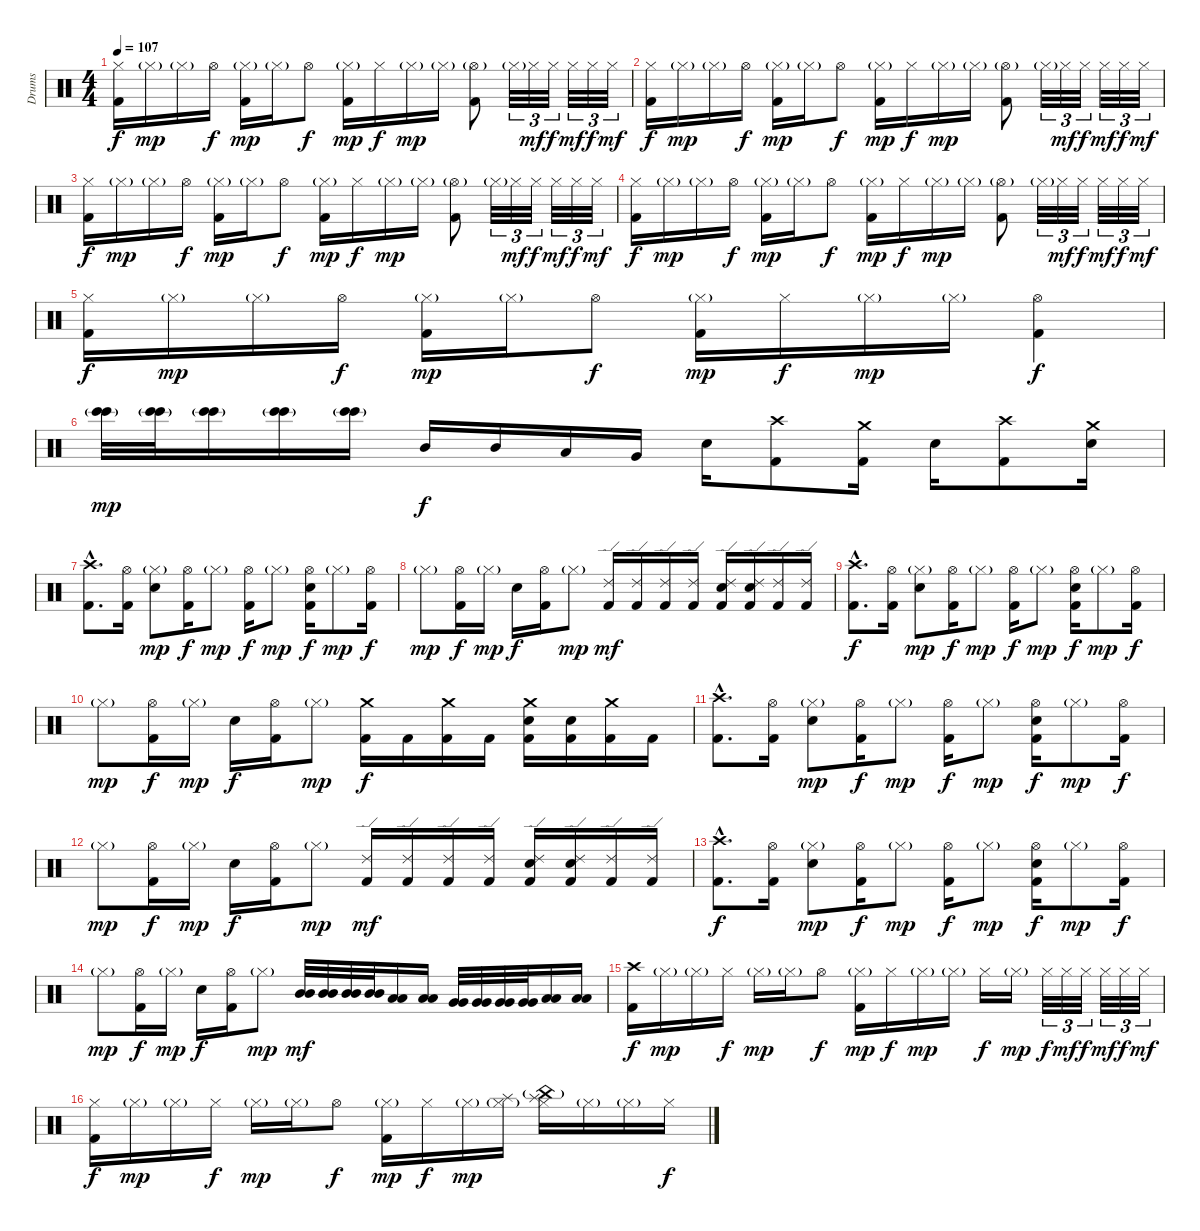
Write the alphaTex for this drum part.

\track ("Drums" "Drums") {instrument percussion}
\staff {score}
\articulation defaults
\ts (4 4)
\tempo 107
\clef neutral
\ks c
("Kick (hit) 2" "Hi-Hat (closed)").16{dy f} "Hi-Hat (closed)"{g}.16{dy mp} "Hi-Hat (closed)"{g}.16 "Hi-Hat (open)".16{dy f} ("Kick (hit) 2" "Hi-Hat (closed)"{g}).16{dy mp} "Hi-Hat (closed)"{g}.16 "Hi-Hat (open)".8{dy f} ("Kick (hit) 2" "Hi-Hat (closed)"{g}).16{dy mp} "Hi-Hat (closed)".16{dy f} "Hi-Hat (closed)"{g}.16{dy mp} "Hi-Hat (closed)"{g}.16 ("Kick (hit) 2" "Hi-Hat (open)"{g}).8 "Hi-Hat (closed)"{g}.32{tu (3 2)} "Hi-Hat (closed)".32{tu (3 2) dy mf} "Hi-Hat (closed)".32{tu (3 2) dy f} "Hi-Hat (closed)".32{tu (3 2) dy mf} "Hi-Hat (closed)".32{tu (3 2) dy f} "Hi-Hat (closed)".32{tu (3 2) dy mf} |
("Kick (hit) 2" "Hi-Hat (closed)").16{dy f} "Hi-Hat (closed)"{g}.16{dy mp} "Hi-Hat (closed)"{g}.16 "Hi-Hat (open)".16{dy f} ("Kick (hit) 2" "Hi-Hat (closed)"{g}).16{dy mp} "Hi-Hat (closed)"{g}.16 "Hi-Hat (open)".8{dy f} ("Kick (hit) 2" "Hi-Hat (closed)"{g}).16{dy mp} "Hi-Hat (closed)".16{dy f} "Hi-Hat (closed)"{g}.16{dy mp} "Hi-Hat (closed)"{g}.16 ("Kick (hit) 2" "Hi-Hat (open)"{g}).8 "Hi-Hat (closed)"{g}.32{tu (3 2)} "Hi-Hat (closed)".32{tu (3 2) dy mf} "Hi-Hat (closed)".32{tu (3 2) dy f} "Hi-Hat (closed)".32{tu (3 2) dy mf} "Hi-Hat (closed)".32{tu (3 2) dy f} "Hi-Hat (closed)".32{tu (3 2) dy mf} |
("Kick (hit) 2" "Hi-Hat (closed)").16{dy f} "Hi-Hat (closed)"{g}.16{dy mp} "Hi-Hat (closed)"{g}.16 "Hi-Hat (open)".16{dy f} ("Kick (hit) 2" "Hi-Hat (closed)"{g}).16{dy mp} "Hi-Hat (closed)"{g}.16 "Hi-Hat (open)".8{dy f} ("Kick (hit) 2" "Hi-Hat (closed)"{g}).16{dy mp} "Hi-Hat (closed)".16{dy f} "Hi-Hat (closed)"{g}.16{dy mp} "Hi-Hat (closed)"{g}.16 ("Kick (hit) 2" "Hi-Hat (open)"{g}).8 "Hi-Hat (closed)"{g}.32{tu (3 2)} "Hi-Hat (closed)".32{tu (3 2) dy mf} "Hi-Hat (closed)".32{tu (3 2) dy f} "Hi-Hat (closed)".32{tu (3 2) dy mf} "Hi-Hat (closed)".32{tu (3 2) dy f} "Hi-Hat (closed)".32{tu (3 2) dy mf} |
("Kick (hit) 2" "Hi-Hat (closed)").16{dy f} "Hi-Hat (closed)"{g}.16{dy mp} "Hi-Hat (closed)"{g}.16 "Hi-Hat (open)".16{dy f} ("Kick (hit) 2" "Hi-Hat (closed)"{g}).16{dy mp} "Hi-Hat (closed)"{g}.16 "Hi-Hat (open)".8{dy f} ("Kick (hit) 2" "Hi-Hat (closed)"{g}).16{dy mp} "Hi-Hat (closed)".16{dy f} "Hi-Hat (closed)"{g}.16{dy mp} "Hi-Hat (closed)"{g}.16 ("Kick (hit) 2" "Hi-Hat (open)"{g}).8 "Hi-Hat (closed)"{g}.32{tu (3 2)} "Hi-Hat (closed)".32{tu (3 2) dy mf} "Hi-Hat (closed)".32{tu (3 2) dy f} "Hi-Hat (closed)".32{tu (3 2) dy mf} "Hi-Hat (closed)".32{tu (3 2) dy f} "Hi-Hat (closed)".32{tu (3 2) dy mf} |
("Kick (hit) 2" "Hi-Hat (closed)").16{dy f} "Hi-Hat (closed)"{g}.16{dy mp} "Hi-Hat (closed)"{g}.16 "Hi-Hat (open)".16{dy f} ("Kick (hit) 2" "Hi-Hat (closed)"{g}).16{dy mp} "Hi-Hat (closed)"{g}.16 "Hi-Hat (open)".8{dy f} ("Kick (hit) 2" "Hi-Hat (closed)"{g}).16{dy mp} "Hi-Hat (closed)".16{dy f} "Hi-Hat (closed)"{g}.16{dy mp} "Hi-Hat (closed)"{g}.16 ("Kick (hit) 2" "Hi-Hat (open)").4{dy f} |
("Bongo High (hit)" "Bongo High (hit)"{g}).32{dy mp} ("Bongo High (hit)" "Bongo High (hit)"{g}).32 ("Bongo High (hit)" "Bongo High (hit)"{g}).16 ("Bongo High (hit)" "Bongo High (hit)"{g}).16 ("Bongo High (hit)" "Bongo High (hit)"{g}).16 "Mid Tom (hit)".16{dy f} "Mid Tom (hit)".16 "Low Tom (hit)".16 "Very Low Tom (hit)".16 "Electric Snare (hit)".16 ("Kick (hit) 2" "Crash high (hit)").8 ("Kick (hit) 2" "Crash medium (hit)").16 "Electric Snare (hit)".16 ("Kick (hit) 2" "Crash high (hit)").8 ("Electric Snare (hit)" "Crash medium (hit)").16 |
("Kick (hit) 2"{hac} "Crash high (hit)"{hac}).8{d} ("Kick (hit) 2" "Hi-Hat (open)").16 ("Electric Snare (hit)" "Hi-Hat (closed)"{g}).8{dy mp} ("Kick (hit) 2" "Hi-Hat (open)").16{dy f} "Hi-Hat (closed)"{g}.8{dy mp} ("Kick (hit) 2" "Hi-Hat (open)").16{dy f} "Hi-Hat (closed)"{g}.8{dy mp} ("Kick (hit) 2" "Electric Snare (hit)" "Hi-Hat (open)").16{dy f} "Hi-Hat (closed)"{g}.8{dy mp} ("Kick (hit) 2" "Hi-Hat (open)").16{dy f} |
"Hi-Hat (closed)"{g}.8{dy mp} ("Kick (hit) 2" "Hi-Hat (open)").16{dy f} "Hi-Hat (closed)"{g}.16{dy mp} "Electric Snare (hit)".16{dy f} ("Kick (hit) 2" "Hi-Hat (open)").16 "Hi-Hat (closed)"{g}.8{dy mp} ("Kick (hit) 2" "Ride (edge) 2").16{dy mf} ("Kick (hit) 2" "Ride (edge) 2").16 ("Kick (hit) 2" "Ride (edge) 2").16 ("Kick (hit) 2" "Ride (edge) 2").16 ("Kick (hit) 2" "Electric Snare (hit)" "Ride (edge) 2").16 ("Kick (hit) 2" "Electric Snare (hit)" "Ride (edge) 2").16 ("Kick (hit) 2" "Ride (edge) 2").16 ("Kick (hit) 2" "Ride (edge) 2").16 |
("Kick (hit) 2"{hac} "Crash high (hit)"{hac}).8{d dy f} ("Kick (hit) 2" "Hi-Hat (open)").16 ("Electric Snare (hit)" "Hi-Hat (closed)"{g}).8{dy mp} ("Kick (hit) 2" "Hi-Hat (open)").16{dy f} "Hi-Hat (closed)"{g}.8{dy mp} ("Kick (hit) 2" "Hi-Hat (open)").16{dy f} "Hi-Hat (closed)"{g}.8{dy mp} ("Kick (hit) 2" "Electric Snare (hit)" "Hi-Hat (open)").16{dy f} "Hi-Hat (closed)"{g}.8{dy mp} ("Kick (hit) 2" "Hi-Hat (open)").16{dy f} |
"Hi-Hat (closed)"{g}.8{dy mp} ("Kick (hit) 2" "Hi-Hat (open)").16{dy f} "Hi-Hat (closed)"{g}.16{dy mp} "Electric Snare (hit)".16{dy f} ("Kick (hit) 2" "Hi-Hat (open)").16 "Hi-Hat (closed)"{g}.8{dy mp} ("Kick (hit) 2" "Crash medium (hit)").16{dy f} "Kick (hit) 2".16 ("Kick (hit) 2" "Crash medium (hit)").16 "Kick (hit) 2".16 ("Kick (hit) 2" "Electric Snare (hit)" "Crash medium (hit)").16 ("Kick (hit) 2" "Electric Snare (hit)").16 ("Kick (hit) 2" "Crash medium (hit)").16 "Kick (hit) 2".16 |
("Kick (hit) 2"{hac} "Crash high (hit)"{hac}).8{d} ("Kick (hit) 2" "Hi-Hat (open)").16 ("Electric Snare (hit)" "Hi-Hat (closed)"{g}).8{dy mp} ("Kick (hit) 2" "Hi-Hat (open)").16{dy f} "Hi-Hat (closed)"{g}.8{dy mp} ("Kick (hit) 2" "Hi-Hat (open)").16{dy f} "Hi-Hat (closed)"{g}.8{dy mp} ("Kick (hit) 2" "Electric Snare (hit)" "Hi-Hat (open)").16{dy f} "Hi-Hat (closed)"{g}.8{dy mp} ("Kick (hit) 2" "Hi-Hat (open)").16{dy f} |
"Hi-Hat (closed)"{g}.8{dy mp} ("Kick (hit) 2" "Hi-Hat (open)").16{dy f} "Hi-Hat (closed)"{g}.16{dy mp} "Electric Snare (hit)".16{dy f} ("Kick (hit) 2" "Hi-Hat (open)").16 "Hi-Hat (closed)"{g}.8{dy mp} ("Kick (hit) 2" "Ride (edge) 2").16{dy mf} ("Kick (hit) 2" "Ride (edge) 2").16 ("Kick (hit) 2" "Ride (edge) 2").16 ("Kick (hit) 2" "Ride (edge) 2").16 ("Kick (hit) 2" "Electric Snare (hit)" "Ride (edge) 2").16 ("Kick (hit) 2" "Electric Snare (hit)" "Ride (edge) 2").16 ("Kick (hit) 2" "Ride (edge) 2").16 ("Kick (hit) 2" "Ride (edge) 2").16 |
("Kick (hit) 2"{hac} "Crash high (hit)"{hac}).8{d dy f} ("Kick (hit) 2" "Hi-Hat (open)").16 ("Electric Snare (hit)" "Hi-Hat (closed)"{g}).8{dy mp} ("Kick (hit) 2" "Hi-Hat (open)").16{dy f} "Hi-Hat (closed)"{g}.8{dy mp} ("Kick (hit) 2" "Hi-Hat (open)").16{dy f} "Hi-Hat (closed)"{g}.8{dy mp} ("Kick (hit) 2" "Electric Snare (hit)" "Hi-Hat (open)").16{dy f} "Hi-Hat (closed)"{g}.8{dy mp} ("Kick (hit) 2" "Hi-Hat (open)").16{dy f} |
"Hi-Hat (closed)"{g}.8{dy mp} ("Kick (hit) 2" "Hi-Hat (open)").16{dy f} "Hi-Hat (closed)"{g}.16{dy mp} "Electric Snare (hit)".16{dy f} ("Kick (hit) 2" "Hi-Hat (open)").16 "Hi-Hat (closed)"{g}.8{dy mp} ("Mid Tom (hit)" "Mid Tom (hit)").32{dy mf} ("Mid Tom (hit)" "Mid Tom (hit)").32 ("Mid Tom (hit)" "Mid Tom (hit)").32 ("Mid Tom (hit)" "Mid Tom (hit)").32 ("Low Tom (hit)" "Low Tom (hit)").16 ("Low Tom (hit)" "Low Tom (hit)").16 ("Very Low Tom (hit)" "Very Low Tom (hit)").32 ("Very Low Tom (hit)" "Very Low Tom (hit)").32 ("Very Low Tom (hit)" "Very Low Tom (hit)").32 ("Very Low Tom (hit)" "Very Low Tom (hit)").32 ("Low Floor Tom (hit)" "Low Floor Tom (hit)").16 ("Low Floor Tom (hit)" "Low Floor Tom (hit)").16 |
("Kick (hit) 2" "Crash high (hit)").16{dy f} "Hi-Hat (closed)"{g}.16{dy mp} "Hi-Hat (closed)"{g}.16 "Hi-Hat (closed)".16{dy f} "Hi-Hat (closed)"{g}.16{dy mp} "Hi-Hat (closed)"{g}.16 "Hi-Hat (open)".8{dy f} ("Kick (hit) 2" "Hi-Hat (closed)"{g}).16{dy mp} "Hi-Hat (closed)".16{dy f} "Hi-Hat (closed)"{g}.16{dy mp} "Hi-Hat (closed)"{g}.16 "Hi-Hat (closed)".16{dy f} "Hi-Hat (closed)"{g}.16{dy mp} "Hi-Hat (closed)".32{tu (3 2) dy f} "Hi-Hat (closed)".32{tu (3 2) dy mf} "Hi-Hat (closed)".32{tu (3 2) dy f} "Hi-Hat (closed)".32{tu (3 2) dy mf} "Hi-Hat (closed)".32{tu (3 2) dy f} "Hi-Hat (closed)".32{tu (3 2) dy mf} |
("Kick (hit) 2" "Hi-Hat (closed)").16{dy f} "Hi-Hat (closed)"{g}.16{dy mp} "Hi-Hat (closed)"{g}.16 "Hi-Hat (closed)".16{dy f} "Hi-Hat (closed)"{g}.16{dy mp} "Hi-Hat (closed)"{g}.16 "Hi-Hat (open)".8{dy f} ("Kick (hit) 2" "Hi-Hat (closed)"{g}).16{dy mp} "Hi-Hat (closed)".16{dy f} "Hi-Hat (closed)"{g}.16{dy mp} ("Hi-Hat (closed)"{g} "Splash (hit)").16 ("Hi-Hat (closed)" "Splash (hit)" "China (hit)"{g}).16 "Hi-Hat (closed)"{g}.16 "Hi-Hat (closed)"{g}.16 "Hi-Hat (closed)".16{dy f}
